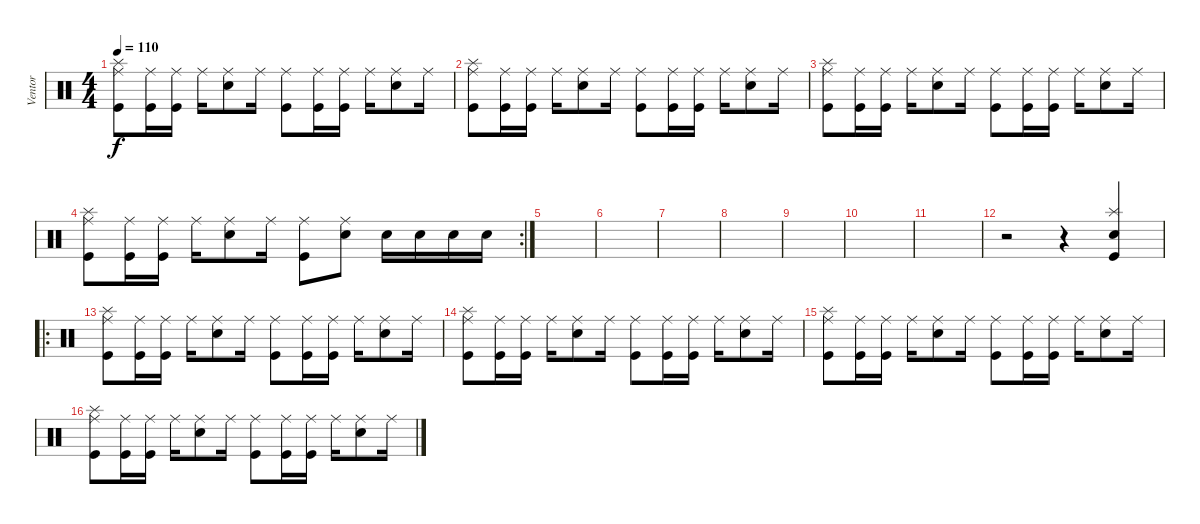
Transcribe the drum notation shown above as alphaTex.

\track ("Ventor" "Ventor") {instrument percussion}
\staff {score}
\articulation defaults
\ts (4 4)
\tempo 110
\clef neutral
\ks c
("Kick (hit)" "Ride (middle)" "Splash (hit)").8{dy f} ("Kick (hit)" "Ride (middle)").16 ("Kick (hit)" "Ride (middle)").16 "Ride (middle)".16 ("Snare (hit) 2" "Ride (middle)").8 "Ride (middle)".16 ("Kick (hit)" "Ride (middle)").8 ("Kick (hit)" "Ride (middle)").16 ("Kick (hit)" "Ride (middle)").16 "Ride (middle)".16 ("Snare (hit) 2" "Ride (middle)").8 "Ride (middle)".16 |
("Kick (hit)" "Ride (middle)" "Splash (hit)").8 ("Kick (hit)" "Ride (middle)").16 ("Kick (hit)" "Ride (middle)").16 "Ride (middle)".16 ("Snare (hit) 2" "Ride (middle)").8 "Ride (middle)".16 ("Kick (hit)" "Ride (middle)").8 ("Kick (hit)" "Ride (middle)").16 ("Kick (hit)" "Ride (middle)").16 "Ride (middle)".16 ("Snare (hit) 2" "Ride (middle)").8 "Ride (middle)".16 |
("Kick (hit)" "Ride (middle)" "Splash (hit)").8 ("Kick (hit)" "Ride (middle)").16 ("Kick (hit)" "Ride (middle)").16 "Ride (middle)".16 ("Snare (hit) 2" "Ride (middle)").8 "Ride (middle)".16 ("Kick (hit)" "Ride (middle)").8 ("Kick (hit)" "Ride (middle)").16 ("Kick (hit)" "Ride (middle)").16 "Ride (middle)".16 ("Snare (hit) 2" "Ride (middle)").8 "Ride (middle)".16 |
\rc 2
("Kick (hit)" "Ride (middle)" "Splash (hit)").8 ("Kick (hit)" "Ride (middle)").16 ("Kick (hit)" "Ride (middle)").16 "Ride (middle)".16 ("Snare (hit) 2" "Ride (middle)").8 "Ride (middle)".16 ("Kick (hit)" "Ride (middle)").8 ("Ride (middle)" "Snare (hit) 2").8 "Snare (hit) 2".16 "Snare (hit) 2".16 "Snare (hit) 2".16 "Snare (hit) 2".16 |
|
|
|
|
|
|
|
r.2 r.4 ("Snare (hit) 2" "Kick (hit)" "Splash (hit)").4 |
\ro
("Kick (hit)" "Ride (middle)" "Splash (hit)").8 ("Kick (hit)" "Ride (middle)").16 ("Kick (hit)" "Ride (middle)").16 "Ride (middle)".16 ("Snare (hit) 2" "Ride (middle)").8 "Ride (middle)".16 ("Kick (hit)" "Ride (middle)").8 ("Kick (hit)" "Ride (middle)").16 ("Kick (hit)" "Ride (middle)").16 "Ride (middle)".16 ("Snare (hit) 2" "Ride (middle)").8 "Ride (middle)".16 |
("Kick (hit)" "Ride (middle)" "Splash (hit)").8 ("Kick (hit)" "Ride (middle)").16 ("Kick (hit)" "Ride (middle)").16 "Ride (middle)".16 ("Snare (hit) 2" "Ride (middle)").8 "Ride (middle)".16 ("Kick (hit)" "Ride (middle)").8 ("Kick (hit)" "Ride (middle)").16 ("Kick (hit)" "Ride (middle)").16 "Ride (middle)".16 ("Snare (hit) 2" "Ride (middle)").8 "Ride (middle)".16 |
("Kick (hit)" "Ride (middle)" "Splash (hit)").8 ("Kick (hit)" "Ride (middle)").16 ("Kick (hit)" "Ride (middle)").16 "Ride (middle)".16 ("Snare (hit) 2" "Ride (middle)").8 "Ride (middle)".16 ("Kick (hit)" "Ride (middle)").8 ("Kick (hit)" "Ride (middle)").16 ("Kick (hit)" "Ride (middle)").16 "Ride (middle)".16 ("Snare (hit) 2" "Ride (middle)").8 "Ride (middle)".16 |
("Kick (hit)" "Ride (middle)" "Splash (hit)").8 ("Kick (hit)" "Ride (middle)").16 ("Kick (hit)" "Ride (middle)").16 "Ride (middle)".16 ("Snare (hit) 2" "Ride (middle)").8 "Ride (middle)".16 ("Kick (hit)" "Ride (middle)").8 ("Kick (hit)" "Ride (middle)").16 ("Kick (hit)" "Ride (middle)").16 "Ride (middle)".16 ("Snare (hit) 2" "Ride (middle)").8 "Ride (middle)".16
